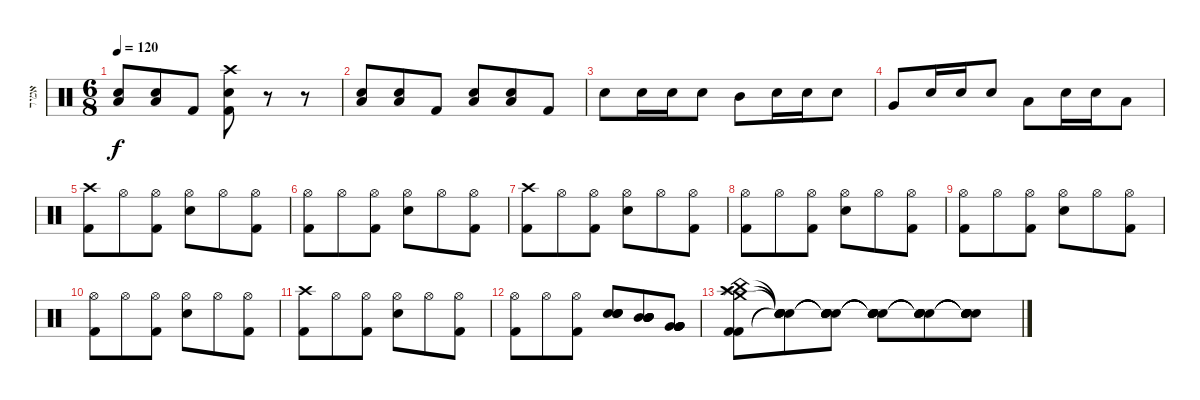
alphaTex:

\track ("אמיר" "אמיר") {instrument percussion}
\staff {score}
\articulation defaults
\ts (6 8)
\tempo 120
\clef neutral
\ks c
("Snare (hit) 2" "Low Floor Tom (hit)").8{dy f} ("Snare (hit) 2" "Low Floor Tom (hit)").8 "Kick (hit) 2".8 ("Crash high (hit)" "Snare (hit) 2" "Kick (hit) 2").8 r.8 r.8 |
("Snare (hit) 2" "Low Floor Tom (hit)").8 ("Snare (hit) 2" "Low Floor Tom (hit)").8 "Kick (hit) 2".8 ("Snare (hit) 2" "Low Floor Tom (hit)").8 ("Snare (hit) 2" "Low Floor Tom (hit)").8 "Kick (hit) 2".8 |
"Snare (hit) 2".8 "Snare (hit) 2".16 "Snare (hit) 2".16 "Snare (hit) 2".8 "Mid Tom (hit)".8 "Snare (hit) 2".16 "Snare (hit) 2".16 "Snare (hit) 2".8 |
"Very Low Tom (hit)".8 "Snare (hit) 2".16 "Snare (hit) 2".16 "Snare (hit) 2".8 "Low Floor Tom (hit)".8 "Snare (hit) 2".16 "Snare (hit) 2".16 "Low Floor Tom (hit)".8 |
("Crash high (hit)" "Kick (hit) 2").8 "Hi-Hat (open)".8 ("Hi-Hat (open)" "Kick (hit) 2").8 ("Hi-Hat (open)" "Snare (hit) 2").8 "Hi-Hat (open)".8 ("Hi-Hat (open)" "Kick (hit) 2").8 |
("Hi-Hat (open)" "Kick (hit) 2").8 "Hi-Hat (open)".8 ("Hi-Hat (open)" "Kick (hit) 2").8 ("Hi-Hat (open)" "Snare (hit) 2").8 "Hi-Hat (open)".8 ("Hi-Hat (open)" "Kick (hit) 2").8 |
("Crash high (hit)" "Kick (hit) 2").8 "Hi-Hat (open)".8 ("Hi-Hat (open)" "Kick (hit) 2").8 ("Hi-Hat (open)" "Snare (hit) 2").8 "Hi-Hat (open)".8 ("Hi-Hat (open)" "Kick (hit) 2").8 |
("Hi-Hat (open)" "Kick (hit) 2").8 "Hi-Hat (open)".8 ("Hi-Hat (open)" "Kick (hit) 2").8 ("Hi-Hat (open)" "Snare (hit) 2").8 "Hi-Hat (open)".8 ("Hi-Hat (open)" "Kick (hit) 2").8 |
("Hi-Hat (open)" "Kick (hit) 2").8 "Hi-Hat (open)".8 ("Hi-Hat (open)" "Kick (hit) 2").8 ("Hi-Hat (open)" "Snare (hit) 2").8 "Hi-Hat (open)".8 ("Hi-Hat (open)" "Kick (hit) 2").8 |
("Hi-Hat (open)" "Kick (hit) 2").8 "Hi-Hat (open)".8 ("Hi-Hat (open)" "Kick (hit) 2").8 ("Hi-Hat (open)" "Snare (hit) 2").8 "Hi-Hat (open)".8 ("Hi-Hat (open)" "Kick (hit) 2").8 |
("Crash high (hit)" "Kick (hit) 2").8 "Hi-Hat (open)".8 ("Hi-Hat (open)" "Kick (hit) 2").8 ("Hi-Hat (open)" "Snare (hit) 2").8 "Hi-Hat (open)".8 ("Hi-Hat (open)" "Kick (hit) 2").8 |
("Hi-Hat (open)" "Kick (hit) 2").8 "Hi-Hat (open)".8 ("Hi-Hat (open)" "Kick (hit) 2").8 ("Snare (hit) 2" "Snare (hit) 2" "Snare (hit) 2" "Snare (hit) 2").8 ("Mid Tom (hit)" "Mid Tom (hit)" "Mid Tom (hit)" "Mid Tom (hit)" "Mid Tom (hit)").8 ("Very Low Tom (hit)" "Very Low Tom (hit)" "Very Low Tom (hit)" "Very Low Tom (hit)" "Very Low Tom (hit)").8 |
("Crash high (hit)" "Crash medium (hit)" "Splash (hit)" "China (hit)" "Kick (hit) 2" "Kick (hit) 2").8 ("Snare (hit)"{t} "Snare (hit)"{t} "Snare (hit)"{t} "Snare (hit)"{t} "Snare (hit)"{t} "Snare (hit)"{t}).8 ("Snare (hit)"{t} "Snare (hit)"{t} "Snare (hit)"{t} "Snare (hit)"{t} "Snare (hit)"{t} "Snare (hit)"{t}).8 ("Snare (hit)"{t} "Snare (hit)"{t} "Snare (hit)"{t} "Snare (hit)"{t} "Snare (hit)"{t} "Snare (hit)"{t}).8 ("Snare (hit)"{t} "Snare (hit)"{t} "Snare (hit)"{t} "Snare (hit)"{t} "Snare (hit)"{t} "Snare (hit)"{t}).8 ("Snare (hit)"{t} "Snare (hit)"{t} "Snare (hit)"{t} "Snare (hit)"{t} "Snare (hit)"{t} "Snare (hit)"{t}).8
